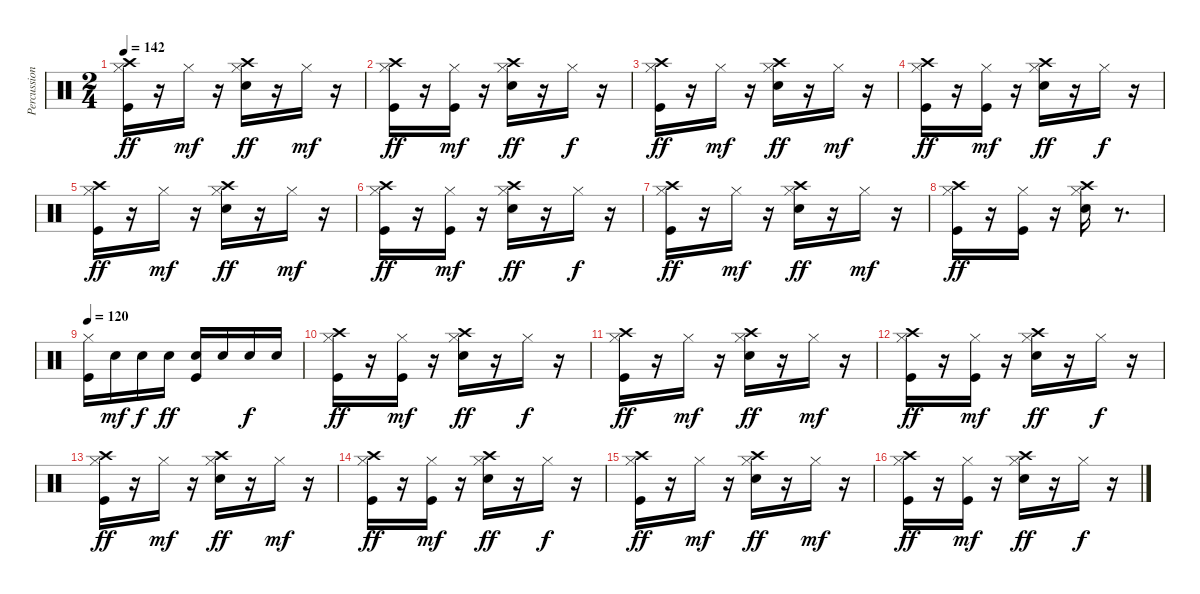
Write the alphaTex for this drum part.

\track ("Percussion" "Percussion") {instrument percussion}
\staff {score}
\articulation defaults
\ts (2 4)
\tempo 142
\clef neutral
\ks c
("Kick (hit)" "Hi-Hat (closed)" "Crash high (hit)").16{dy ff} r.16 "Hi-Hat (closed)".16{dy mf} r.16 ("Snare (hit) 2" "Hi-Hat (closed)" "Crash high (hit)").16{dy ff} r.16 "Hi-Hat (closed)".16{dy mf} r.16 |
("Kick (hit)" "Hi-Hat (closed)" "Crash high (hit)").16{dy ff} r.16 ("Kick (hit)" "Hi-Hat (closed)").16{dy mf} r.16 ("Snare (hit) 2" "Hi-Hat (closed)" "Crash high (hit)").16{dy ff} r.16 "Hi-Hat (closed)".16{dy f} r.16 |
("Kick (hit)" "Hi-Hat (closed)" "Crash high (hit)").16{dy ff} r.16 "Hi-Hat (closed)".16{dy mf} r.16 ("Snare (hit) 2" "Hi-Hat (closed)" "Crash high (hit)").16{dy ff} r.16 "Hi-Hat (closed)".16{dy mf} r.16 |
("Kick (hit)" "Hi-Hat (closed)" "Crash high (hit)").16{dy ff} r.16 ("Kick (hit)" "Hi-Hat (closed)").16{dy mf} r.16 ("Snare (hit) 2" "Hi-Hat (closed)" "Crash high (hit)").16{dy ff} r.16 "Hi-Hat (closed)".16{dy f} r.16 |
("Kick (hit)" "Hi-Hat (closed)" "Crash high (hit)").16{dy ff} r.16 "Hi-Hat (closed)".16{dy mf} r.16 ("Snare (hit) 2" "Hi-Hat (closed)" "Crash high (hit)").16{dy ff} r.16 "Hi-Hat (closed)".16{dy mf} r.16 |
("Kick (hit)" "Hi-Hat (closed)" "Crash high (hit)").16{dy ff} r.16 ("Kick (hit)" "Hi-Hat (closed)").16{dy mf} r.16 ("Snare (hit) 2" "Hi-Hat (closed)" "Crash high (hit)").16{dy ff} r.16 "Hi-Hat (closed)".16{dy f} r.16 |
("Kick (hit)" "Hi-Hat (closed)" "Crash high (hit)").16{dy ff} r.16 "Hi-Hat (closed)".16{dy mf} r.16 ("Snare (hit) 2" "Hi-Hat (closed)" "Crash high (hit)").16{dy ff} r.16 "Hi-Hat (closed)".16{dy mf} r.16 |
("Kick (hit)" "Hi-Hat (closed)" "Crash high (hit)").16{dy ff} r.16 ("Kick (hit)" "Hi-Hat (closed)").16 r.16 ("Snare (hit) 2" "Hi-Hat (closed)" "Crash high (hit)").16 r.8{d} |
\tempo 120
("Kick (hit)" "Hi-Hat (closed)").16 "Snare (hit) 2".16{dy mf} "Snare (hit) 2".16{dy f} "Snare (hit) 2".16{dy ff} ("Snare (hit) 2" "Kick (hit)").16 "Snare (hit) 2".16 "Snare (hit) 2".16{dy f} "Snare (hit) 2".16 |
("Kick (hit)" "Hi-Hat (closed)" "Crash high (hit)").16{dy ff} r.16 ("Kick (hit)" "Hi-Hat (closed)").16{dy mf} r.16 ("Snare (hit) 2" "Hi-Hat (closed)" "Crash high (hit)").16{dy ff} r.16 "Hi-Hat (closed)".16{dy f} r.16 |
("Kick (hit)" "Hi-Hat (closed)" "Crash high (hit)").16{dy ff} r.16 "Hi-Hat (closed)".16{dy mf} r.16 ("Snare (hit) 2" "Hi-Hat (closed)" "Crash high (hit)").16{dy ff} r.16 "Hi-Hat (closed)".16{dy mf} r.16 |
("Kick (hit)" "Hi-Hat (closed)" "Crash high (hit)").16{dy ff} r.16 ("Kick (hit)" "Hi-Hat (closed)").16{dy mf} r.16 ("Snare (hit) 2" "Hi-Hat (closed)" "Crash high (hit)").16{dy ff} r.16 "Hi-Hat (closed)".16{dy f} r.16 |
("Kick (hit)" "Hi-Hat (closed)" "Crash high (hit)").16{dy ff} r.16 "Hi-Hat (closed)".16{dy mf} r.16 ("Snare (hit) 2" "Hi-Hat (closed)" "Crash high (hit)").16{dy ff} r.16 "Hi-Hat (closed)".16{dy mf} r.16 |
("Kick (hit)" "Hi-Hat (closed)" "Crash high (hit)").16{dy ff} r.16 ("Kick (hit)" "Hi-Hat (closed)").16{dy mf} r.16 ("Snare (hit) 2" "Hi-Hat (closed)" "Crash high (hit)").16{dy ff} r.16 "Hi-Hat (closed)".16{dy f} r.16 |
("Kick (hit)" "Hi-Hat (closed)" "Crash high (hit)").16{dy ff} r.16 "Hi-Hat (closed)".16{dy mf} r.16 ("Snare (hit) 2" "Hi-Hat (closed)" "Crash high (hit)").16{dy ff} r.16 "Hi-Hat (closed)".16{dy mf} r.16 |
("Kick (hit)" "Hi-Hat (closed)" "Crash high (hit)").16{dy ff} r.16 ("Kick (hit)" "Hi-Hat (closed)").16{dy mf} r.16 ("Snare (hit) 2" "Hi-Hat (closed)" "Crash high (hit)").16{dy ff} r.16 "Hi-Hat (closed)".16{dy f} r.16
